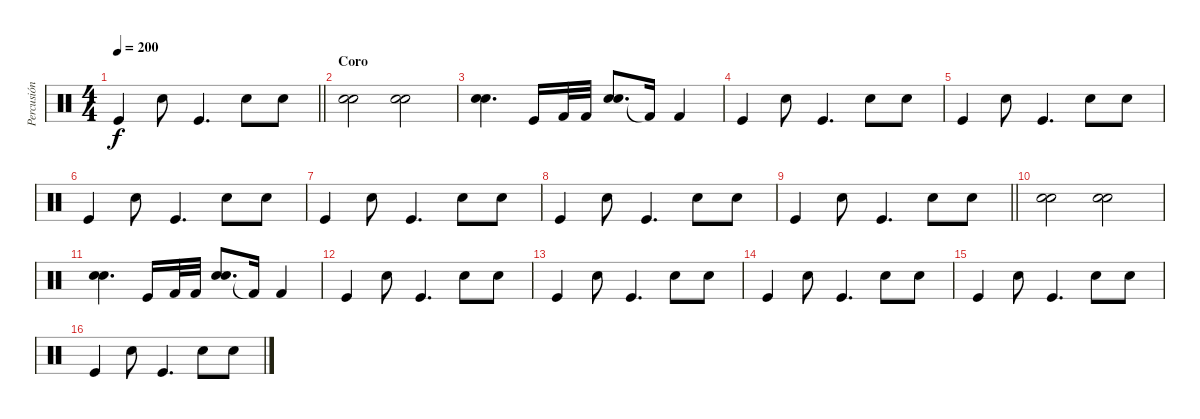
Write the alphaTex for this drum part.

\track ("Percusión" "Percusión") {instrument percussion}
\staff {score}
\articulation defaults
\ts (4 4)
\tempo 200
\clef neutral
\barLineRight lightlight
\ks c "Kick (hit)".4{dy f} "Snare (hit) 2".8 "Kick (hit)".4{d} "Snare (hit) 2".8 "Snare (hit) 2".8
|
\section ("" "Coro")
("Electric Snare (hit)" "Snare (hit) 2").2 ("Electric Snare (hit)" "Snare (hit) 2").2 |
("Electric Snare (hit)" "Snare (hit) 2").4{d} "Kick (hit)".16 "Kick (hit) 2".32 "Kick (hit) 2".32 ("Electric Snare (hit)" "Snare (hit) 2").8{d} "Kick (hit) 2"{t}.16 "Kick (hit) 2".4 |
"Kick (hit)".4 "Snare (hit) 2".8 "Kick (hit)".4{d} "Snare (hit) 2".8 "Snare (hit) 2".8 |
"Kick (hit)".4 "Snare (hit) 2".8 "Kick (hit)".4{d} "Snare (hit) 2".8 "Snare (hit) 2".8 |
"Kick (hit)".4 "Snare (hit) 2".8 "Kick (hit)".4{d} "Snare (hit) 2".8 "Snare (hit) 2".8 |
"Kick (hit)".4 "Snare (hit) 2".8 "Kick (hit)".4{d} "Snare (hit) 2".8 "Snare (hit) 2".8 |
"Kick (hit)".4 "Snare (hit) 2".8 "Kick (hit)".4{d} "Snare (hit) 2".8 "Snare (hit) 2".8 |
\barLineRight lightlight "Kick (hit)".4 "Snare (hit) 2".8 "Kick (hit)".4{d} "Snare (hit) 2".8 "Snare (hit) 2".8
|
("Electric Snare (hit)" "Snare (hit) 2").2 ("Electric Snare (hit)" "Snare (hit) 2").2 |
("Electric Snare (hit)" "Snare (hit) 2").4{d} "Kick (hit)".16 "Kick (hit) 2".32 "Kick (hit) 2".32 ("Electric Snare (hit)" "Snare (hit) 2").8{d} "Kick (hit) 2"{t}.16 "Kick (hit) 2".4 |
"Kick (hit)".4 "Snare (hit) 2".8 "Kick (hit)".4{d} "Snare (hit) 2".8 "Snare (hit) 2".8 |
"Kick (hit)".4 "Snare (hit) 2".8 "Kick (hit)".4{d} "Snare (hit) 2".8 "Snare (hit) 2".8 |
"Kick (hit)".4 "Snare (hit) 2".8 "Kick (hit)".4{d} "Snare (hit) 2".8 "Snare (hit) 2".8 |
"Kick (hit)".4 "Snare (hit) 2".8 "Kick (hit)".4{d} "Snare (hit) 2".8 "Snare (hit) 2".8 |
"Kick (hit)".4 "Snare (hit) 2".8 "Kick (hit)".4{d} "Snare (hit) 2".8 "Snare (hit) 2".8
